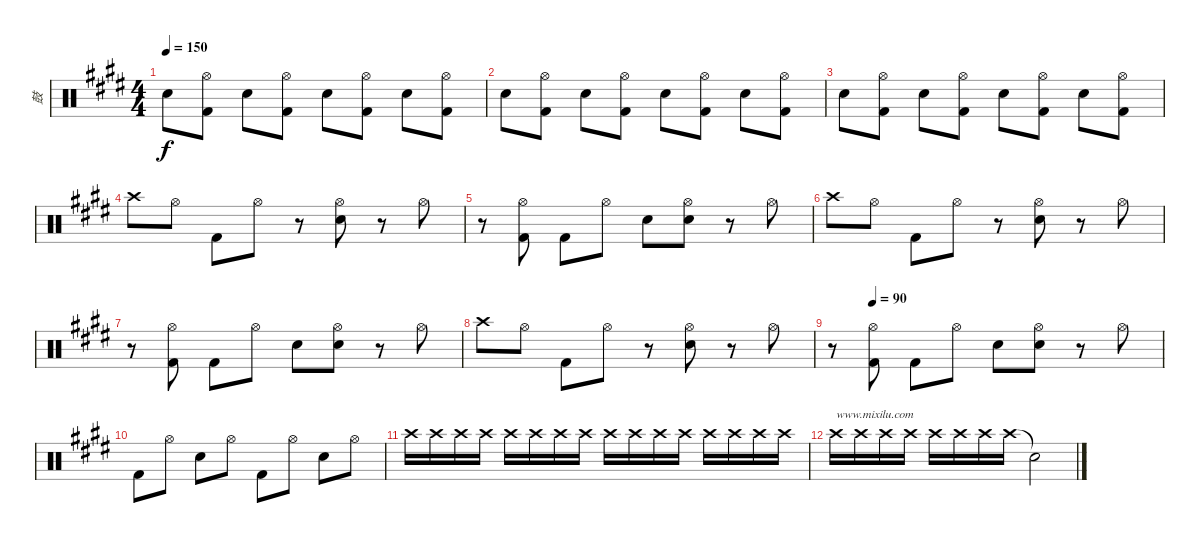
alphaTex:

\track ("鼓" "鼓") {instrument percussion}
\staff {score}
\articulation defaults
\ts (4 4)
\tempo 150
\clef neutral
\ks e "Snare (hit) 2".8{dy f}
("Hi-Hat (open)" "Kick (hit) 2").8 "Snare (hit) 2".8 ("Hi-Hat (open)" "Kick (hit) 2").8 "Snare (hit) 2".8 ("Hi-Hat (open)" "Kick (hit) 2").8 "Snare (hit) 2".8 ("Hi-Hat (open)" "Kick (hit) 2").8 |
"Snare (hit) 2".8 ("Hi-Hat (open)" "Kick (hit) 2").8 "Snare (hit) 2".8 ("Hi-Hat (open)" "Kick (hit) 2").8 "Snare (hit) 2".8 ("Hi-Hat (open)" "Kick (hit) 2").8 "Snare (hit) 2".8 ("Hi-Hat (open)" "Kick (hit) 2").8 |
"Snare (hit) 2".8 ("Hi-Hat (open)" "Kick (hit) 2").8 "Snare (hit) 2".8 ("Hi-Hat (open)" "Kick (hit) 2").8 "Snare (hit) 2".8 ("Hi-Hat (open)" "Kick (hit) 2").8 "Snare (hit) 2".8 ("Hi-Hat (open)" "Kick (hit) 2").8 |
"Crash high (hit)".8 "Hi-Hat (open)".8 "Kick (hit) 2".8 "Hi-Hat (open)".8 r.8 ("Hi-Hat (open)" "Snare (hit) 2").8 r.8 "Hi-Hat (open)".8 |
r.8 ("Hi-Hat (open)" "Kick (hit) 2").8 "Kick (hit) 2".8 "Hi-Hat (open)".8 "Snare (hit) 2".8 ("Hi-Hat (open)" "Snare (hit) 2").8 r.8 "Hi-Hat (open)".8 |
"Crash high (hit)".8 "Hi-Hat (open)".8 "Kick (hit) 2".8 "Hi-Hat (open)".8 r.8 ("Hi-Hat (open)" "Snare (hit) 2").8 r.8 "Hi-Hat (open)".8 |
r.8 ("Hi-Hat (open)" "Kick (hit) 2").8 "Kick (hit) 2".8 "Hi-Hat (open)".8 "Snare (hit) 2".8 ("Hi-Hat (open)" "Snare (hit) 2").8 r.8 "Hi-Hat (open)".8 |
"Crash high (hit)".8 "Hi-Hat (open)".8 "Kick (hit) 2".8 "Hi-Hat (open)".8 r.8 ("Hi-Hat (open)" "Snare (hit) 2").8 r.8 "Hi-Hat (open)".8 |
\tempo (90 0.125)
r.8 ("Hi-Hat (open)" "Kick (hit) 2").8 "Kick (hit) 2".8 "Hi-Hat (open)".8 "Snare (hit) 2".8 ("Hi-Hat (open)" "Snare (hit) 2").8 r.8 "Hi-Hat (open)".8 |
"Kick (hit) 2".8 "Hi-Hat (open)".8 "Snare (hit) 2".8 "Hi-Hat (open)".8 "Kick (hit) 2".8 "Hi-Hat (open)".8 "Snare (hit) 2".8 "Hi-Hat (open)".8 |
"Crash high (hit)".16{volume 7} "Crash high (hit)".16 "Crash high (hit)".16 "Crash high (hit)".16 "Crash high (hit)".16 "Crash high (hit)".16 "Crash high (hit)".16 "Crash high (hit)".16 "Crash high (hit)".16{volume 13} "Crash high (hit)".16 "Crash high (hit)".16 "Crash high (hit)".16 "Crash high (hit)".16 "Crash high (hit)".16 "Crash high (hit)".16 "Crash high (hit)".16 |
"Crash high (hit)".16{txt "www.mixilu.com" volume 0} "Crash high (hit)".16 "Crash high (hit)".16 "Crash high (hit)".16 "Crash high (hit)".16 "Crash high (hit)".16 "Crash high (hit)".16 "Crash high (hit)".16 "Snare (hit)"{t}.2
